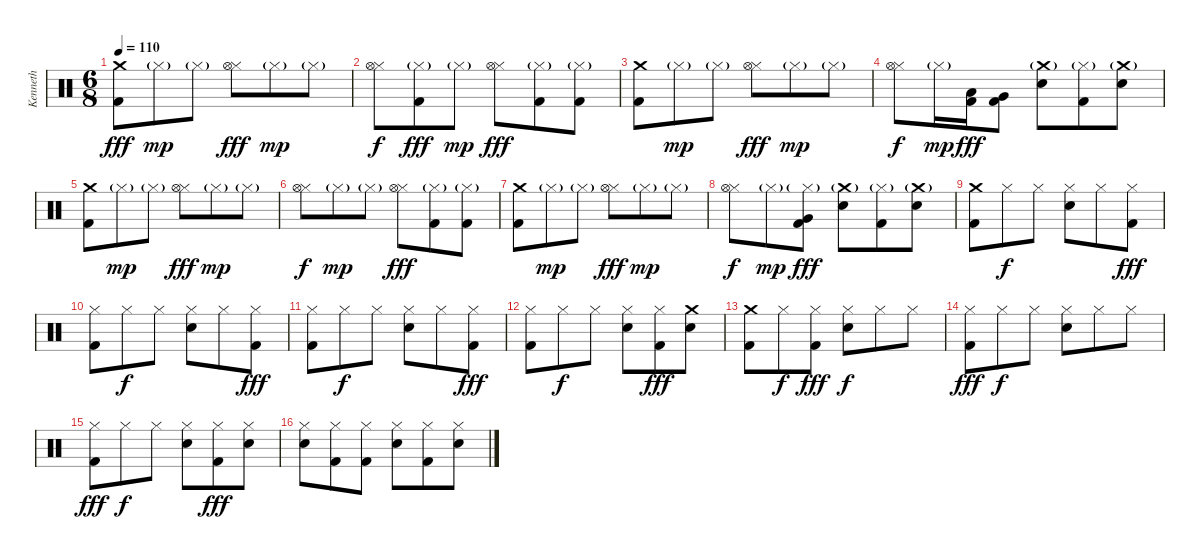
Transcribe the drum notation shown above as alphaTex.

\track ("Kenneth " "Kenneth ") {instrument percussion}
\staff {score}
\articulation defaults
\ts (6 8)
\tempo 110
\clef neutral
\ks c
("Crash medium (hit)" "Kick (hit) 2").8{dy fff} "Hi-Hat (closed)"{g}.8{dy mp} "Hi-Hat (closed)"{g}.8 ("Hi-Hat (closed)" "Hi-Hat (open)").8{dy fff} "Hi-Hat (closed)"{g}.8{dy mp} "Hi-Hat (closed)"{g}.8 |
("Hi-Hat (closed)" "Hi-Hat (open)").8{dy f} ("Hi-Hat (closed)"{g} "Kick (hit) 2").8{dy fff} "Hi-Hat (closed)"{g}.8{dy mp} ("Hi-Hat (closed)" "Hi-Hat (open)").8{dy fff} ("Hi-Hat (closed)"{g} "Kick (hit) 2").8 ("Hi-Hat (closed)"{g} "Kick (hit) 2").8 |
("Crash medium (hit)" "Kick (hit) 2").8 "Hi-Hat (closed)"{g}.8{dy mp} "Hi-Hat (closed)"{g}.8 ("Hi-Hat (closed)" "Hi-Hat (open)").8{dy fff} "Hi-Hat (closed)"{g}.8{dy mp} "Hi-Hat (closed)"{g}.8 |
("Hi-Hat (closed)" "Hi-Hat (open)").8{dy f} "Hi-Hat (closed)"{g}.16{dy mp} ("Low Tom (hit)" "Kick (hit) 2").16{dy fff} ("Very Low Tom (hit)" "Kick (hit) 2").8 ("Crash medium (hit)"{g} "Electric Snare (hit)").8 ("Hi-Hat (closed)"{g} "Kick (hit) 2").8 ("Crash medium (hit)"{g} "Electric Snare (hit)").8 |
("Crash medium (hit)" "Kick (hit) 2").8 "Hi-Hat (closed)"{g}.8{dy mp} "Hi-Hat (closed)"{g}.8 ("Hi-Hat (closed)" "Hi-Hat (open)").8{dy fff} "Hi-Hat (closed)"{g}.8{dy mp} "Hi-Hat (closed)"{g}.8 |
("Hi-Hat (closed)" "Hi-Hat (open)").8{dy f} "Hi-Hat (closed)"{g}.8{dy mp} "Hi-Hat (closed)"{g}.8 ("Hi-Hat (closed)" "Hi-Hat (open)").8{dy fff} ("Hi-Hat (closed)"{g} "Kick (hit) 2").8 ("Hi-Hat (closed)"{g} "Kick (hit) 2").8 |
("Crash medium (hit)" "Kick (hit) 2").8 "Hi-Hat (closed)"{g}.8{dy mp} "Hi-Hat (closed)"{g}.8 ("Hi-Hat (closed)" "Hi-Hat (open)").8{dy fff} "Hi-Hat (closed)"{g}.8{dy mp} "Hi-Hat (closed)"{g}.8 |
("Hi-Hat (closed)" "Hi-Hat (open)").8{dy f} "Hi-Hat (closed)"{g}.8{dy mp} ("Hi-Hat (closed)"{g} "Very Low Tom (hit)" "Kick (hit) 2").8{dy fff} ("Crash medium (hit)"{g} "Electric Snare (hit)").8 ("Hi-Hat (closed)"{g} "Kick (hit) 2").8 ("Crash medium (hit)"{g} "Electric Snare (hit)").8 |
("Crash medium (hit)" "Kick (hit) 2").8 "Hi-Hat (closed)".8{dy f} "Hi-Hat (closed)".8 ("Hi-Hat (closed)" "Electric Snare (hit)").8 "Hi-Hat (closed)".8 ("Hi-Hat (closed)" "Kick (hit) 2").8{dy fff} |
("Hi-Hat (closed)" "Kick (hit) 2").8 "Hi-Hat (closed)".8{dy f} "Hi-Hat (closed)".8 ("Hi-Hat (closed)" "Electric Snare (hit)").8 "Hi-Hat (closed)".8 ("Hi-Hat (closed)" "Kick (hit) 2").8{dy fff} |
("Hi-Hat (closed)" "Kick (hit) 2").8 "Hi-Hat (closed)".8{dy f} "Hi-Hat (closed)".8 ("Hi-Hat (closed)" "Electric Snare (hit)").8 "Hi-Hat (closed)".8 ("Hi-Hat (closed)" "Kick (hit) 2").8{dy fff} |
("Hi-Hat (closed)" "Kick (hit) 2").8 "Hi-Hat (closed)".8{dy f} "Hi-Hat (closed)".8 ("Hi-Hat (closed)" "Electric Snare (hit)").8 ("Hi-Hat (closed)" "Kick (hit) 2").8{dy fff} ("Crash medium (hit)" "Electric Snare (hit)").8 |
("Crash medium (hit)" "Kick (hit) 2").8 "Hi-Hat (closed)".8{dy f} ("Hi-Hat (closed)" "Kick (hit) 2").8{dy fff} ("Hi-Hat (closed)" "Electric Snare (hit)").8{dy f} "Hi-Hat (closed)".8 "Hi-Hat (closed)".8 |
("Hi-Hat (closed)" "Kick (hit) 2").8{dy fff} "Hi-Hat (closed)".8{dy f} "Hi-Hat (closed)".8 ("Hi-Hat (closed)" "Electric Snare (hit)").8 "Hi-Hat (closed)".8 "Hi-Hat (closed)".8 |
("Hi-Hat (closed)" "Kick (hit) 2").8{dy fff} "Hi-Hat (closed)".8{dy f} "Hi-Hat (closed)".8 ("Hi-Hat (closed)" "Electric Snare (hit)").8 ("Hi-Hat (closed)" "Kick (hit) 2").8{dy fff} ("Hi-Hat (closed)" "Electric Snare (hit)").8 |
("Hi-Hat (closed)" "Electric Snare (hit)").8 ("Hi-Hat (closed)" "Kick (hit) 2").8 ("Hi-Hat (closed)" "Kick (hit) 2").8 ("Hi-Hat (closed)" "Electric Snare (hit)").8 ("Hi-Hat (closed)" "Kick (hit) 2").8 ("Hi-Hat (closed)" "Electric Snare (hit)").8
